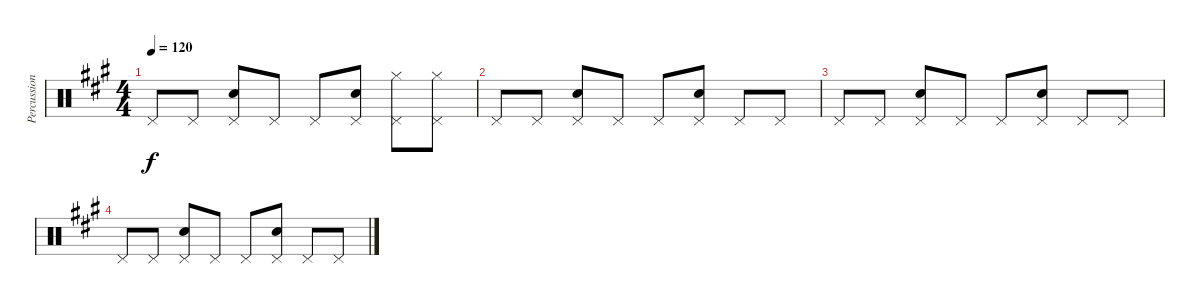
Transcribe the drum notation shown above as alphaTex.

\track ("Percussion" "Percussion") {instrument percussion}
\staff {score}
\articulation defaults
\ts (4 4)
\tempo 120
\clef neutral
\ks a "Pedal Hi-Hat (hit)".8{dy f} "Pedal Hi-Hat (hit)".8
("Snare (hit) 2" "Pedal Hi-Hat (hit)").8 "Pedal Hi-Hat (hit)".8 "Pedal Hi-Hat (hit)".8 ("Snare (hit) 2" "Pedal Hi-Hat (hit)").8 ("Hi-Hat (closed)" "Pedal Hi-Hat (hit)").8 ("Hi-Hat (closed)" "Pedal Hi-Hat (hit)").8 |
"Pedal Hi-Hat (hit)".8 "Pedal Hi-Hat (hit)".8 ("Snare (hit) 2" "Pedal Hi-Hat (hit)").8 "Pedal Hi-Hat (hit)".8 "Pedal Hi-Hat (hit)".8 ("Snare (hit) 2" "Pedal Hi-Hat (hit)").8 "Pedal Hi-Hat (hit)".8 "Pedal Hi-Hat (hit)".8 |
"Pedal Hi-Hat (hit)".8 "Pedal Hi-Hat (hit)".8 ("Snare (hit) 2" "Pedal Hi-Hat (hit)").8 "Pedal Hi-Hat (hit)".8 "Pedal Hi-Hat (hit)".8 ("Snare (hit) 2" "Pedal Hi-Hat (hit)").8 "Pedal Hi-Hat (hit)".8 "Pedal Hi-Hat (hit)".8 |
"Pedal Hi-Hat (hit)".8 "Pedal Hi-Hat (hit)".8 ("Snare (hit) 2" "Pedal Hi-Hat (hit)").8 "Pedal Hi-Hat (hit)".8 "Pedal Hi-Hat (hit)".8 ("Snare (hit) 2" "Pedal Hi-Hat (hit)").8 "Pedal Hi-Hat (hit)".8 "Pedal Hi-Hat (hit)".8
